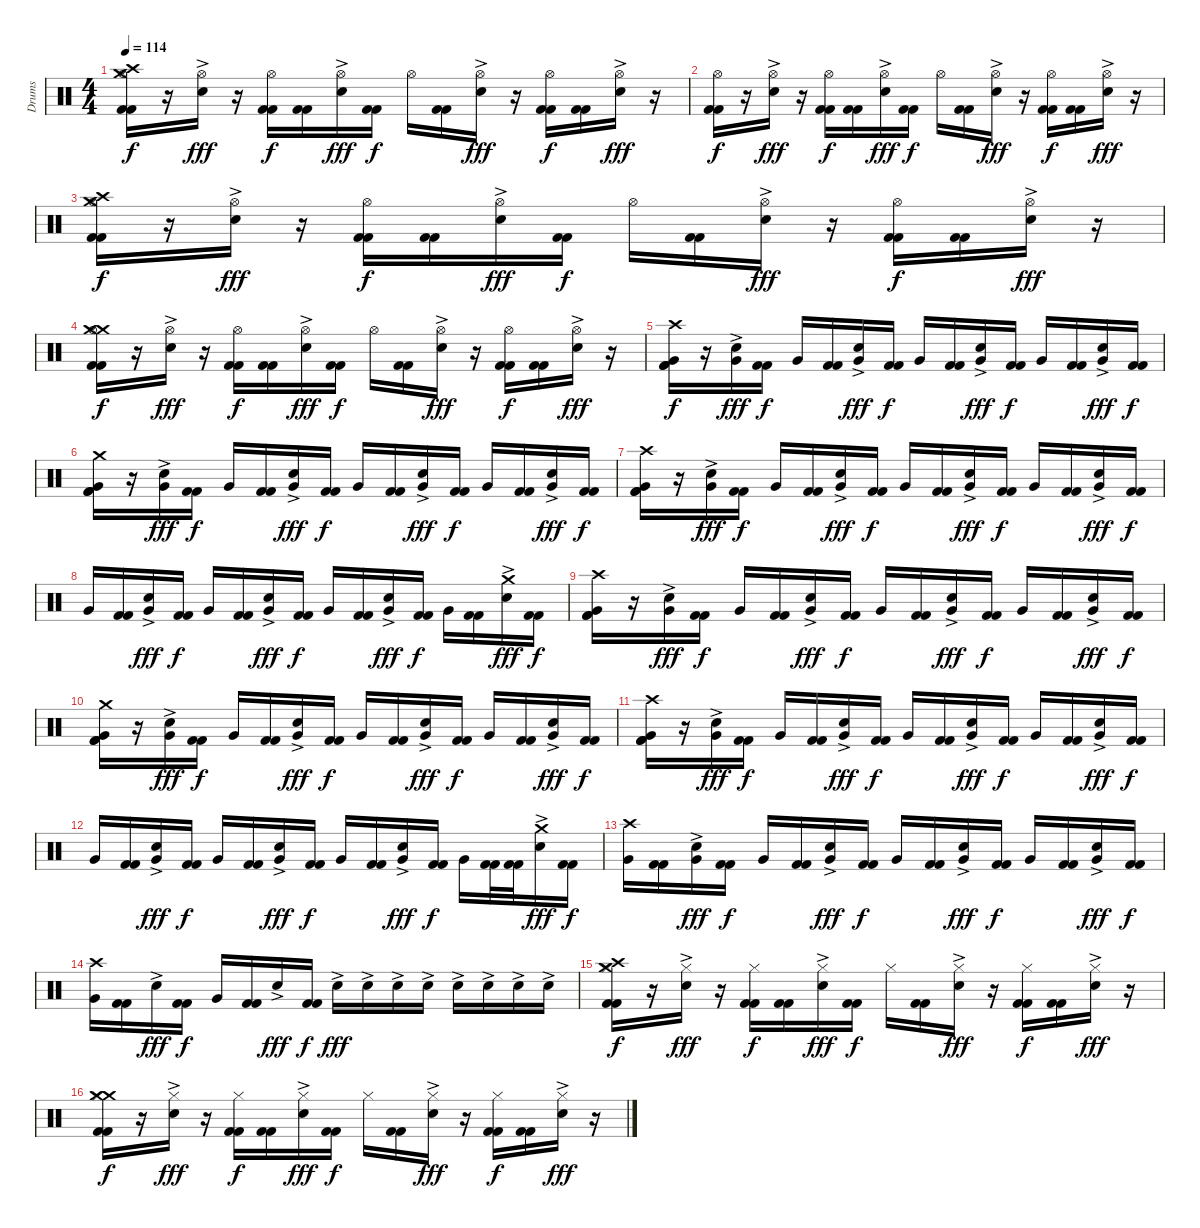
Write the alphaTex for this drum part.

\track ("Drums" "Drums") {instrument percussion}
\staff {score}
\articulation defaults
\ts (4 4)
\tempo 114
\clef neutral
\ks c
("Crash high (hit)" "Crash medium (hit)" "Hi-Hat (open)" "Kick (hit) 2" "Kick (hit) 2").16{dy f} r.16 ("Hi-Hat (open)" "Electric Snare (hit)"{ac}).16{dy fff} r.16 ("Hi-Hat (open)" "Kick (hit) 2" "Kick (hit) 2").16{dy f} ("Kick (hit) 2" "Kick (hit) 2").16 ("Hi-Hat (open)" "Electric Snare (hit)"{ac}).16{dy fff} ("Kick (hit) 2" "Kick (hit) 2").16{dy f} "Hi-Hat (open)".16 ("Kick (hit) 2" "Kick (hit) 2").16 ("Hi-Hat (open)" "Electric Snare (hit)"{ac}).16{dy fff} r.16 ("Hi-Hat (open)" "Kick (hit) 2" "Kick (hit) 2").16{dy f} ("Kick (hit) 2" "Kick (hit) 2").16 ("Hi-Hat (open)" "Electric Snare (hit)"{ac}).16{dy fff} r.16 |
("Hi-Hat (open)" "Kick (hit) 2" "Kick (hit) 2").16{dy f} r.16 ("Hi-Hat (open)" "Electric Snare (hit)"{ac}).16{dy fff} r.16 ("Hi-Hat (open)" "Kick (hit) 2" "Kick (hit) 2").16{dy f} ("Kick (hit) 2" "Kick (hit) 2").16 ("Hi-Hat (open)" "Electric Snare (hit)"{ac}).16{dy fff} ("Kick (hit) 2" "Kick (hit) 2").16{dy f} "Hi-Hat (open)".16 ("Kick (hit) 2" "Kick (hit) 2").16 ("Hi-Hat (open)" "Electric Snare (hit)"{ac}).16{dy fff} r.16 ("Hi-Hat (open)" "Kick (hit) 2" "Kick (hit) 2").16{dy f} ("Kick (hit) 2" "Kick (hit) 2").16 ("Hi-Hat (open)" "Electric Snare (hit)"{ac}).16{dy fff} r.16 |
("Crash high (hit)" "Crash medium (hit)" "Hi-Hat (open)" "Kick (hit) 2" "Kick (hit) 2").16{dy f} r.16 ("Hi-Hat (open)" "Electric Snare (hit)"{ac}).16{dy fff} r.16 ("Hi-Hat (open)" "Kick (hit) 2" "Kick (hit) 2").16{dy f} ("Kick (hit) 2" "Kick (hit) 2").16 ("Hi-Hat (open)" "Electric Snare (hit)"{ac}).16{dy fff} ("Kick (hit) 2" "Kick (hit) 2").16{dy f} "Hi-Hat (open)".16 ("Kick (hit) 2" "Kick (hit) 2").16 ("Hi-Hat (open)" "Electric Snare (hit)"{ac}).16{dy fff} r.16 ("Hi-Hat (open)" "Kick (hit) 2" "Kick (hit) 2").16{dy f} ("Kick (hit) 2" "Kick (hit) 2").16 ("Hi-Hat (open)" "Electric Snare (hit)"{ac}).16{dy fff} r.16 |
("Crash medium (hit)" "Crash medium (hit)" "Hi-Hat (open)" "Kick (hit) 2" "Kick (hit) 2").16{dy f} r.16 ("Hi-Hat (open)" "Electric Snare (hit)"{ac}).16{dy fff} r.16 ("Hi-Hat (open)" "Kick (hit) 2" "Kick (hit) 2").16{dy f} ("Kick (hit) 2" "Kick (hit) 2").16 ("Hi-Hat (open)" "Electric Snare (hit)"{ac}).16{dy fff} ("Kick (hit) 2" "Kick (hit) 2").16{dy f} "Hi-Hat (open)".16 ("Kick (hit) 2" "Kick (hit) 2").16 ("Hi-Hat (open)" "Electric Snare (hit)"{ac}).16{dy fff} r.16 ("Hi-Hat (open)" "Kick (hit) 2" "Kick (hit) 2").16{dy f} ("Kick (hit) 2" "Kick (hit) 2").16 ("Hi-Hat (open)" "Electric Snare (hit)"{ac}).16{dy fff} r.16 |
("Crash high (hit)" "Very Low Tom (hit)" "Kick (hit) 2" "Kick (hit) 2").16{dy f} r.16 ("Very Low Tom (hit)" "Electric Snare (hit)"{ac}).16{dy fff} ("Kick (hit) 2" "Kick (hit) 2").16{dy f} "Very Low Tom (hit)".16 ("Kick (hit) 2" "Kick (hit) 2").16 ("Very Low Tom (hit)" "Electric Snare (hit)"{ac}).16{dy fff} ("Kick (hit) 2" "Kick (hit) 2").16{dy f} "Very Low Tom (hit)".16 ("Kick (hit) 2" "Kick (hit) 2").16 ("Very Low Tom (hit)" "Electric Snare (hit)"{ac}).16{dy fff} ("Kick (hit) 2" "Kick (hit) 2").16{dy f} "Very Low Tom (hit)".16 ("Kick (hit) 2" "Kick (hit) 2").16 ("Very Low Tom (hit)" "Electric Snare (hit)"{ac}).16{dy fff} ("Kick (hit) 2" "Kick (hit) 2").16{dy f} |
("Crash medium (hit)" "Very Low Tom (hit)" "Kick (hit) 2" "Kick (hit) 2").16 r.16 ("Very Low Tom (hit)" "Electric Snare (hit)"{ac}).16{dy fff} ("Kick (hit) 2" "Kick (hit) 2").16{dy f} "Very Low Tom (hit)".16 ("Kick (hit) 2" "Kick (hit) 2").16 ("Very Low Tom (hit)" "Electric Snare (hit)"{ac}).16{dy fff} ("Kick (hit) 2" "Kick (hit) 2").16{dy f} "Very Low Tom (hit)".16 ("Kick (hit) 2" "Kick (hit) 2").16 ("Very Low Tom (hit)" "Electric Snare (hit)"{ac}).16{dy fff} ("Kick (hit) 2" "Kick (hit) 2").16{dy f} "Very Low Tom (hit)".16 ("Kick (hit) 2" "Kick (hit) 2").16 ("Very Low Tom (hit)" "Electric Snare (hit)"{ac}).16{dy fff} ("Kick (hit) 2" "Kick (hit) 2").16{dy f} |
("Crash high (hit)" "Very Low Tom (hit)" "Kick (hit) 2" "Kick (hit) 2").16 r.16 ("Very Low Tom (hit)" "Electric Snare (hit)"{ac}).16{dy fff} ("Kick (hit) 2" "Kick (hit) 2").16{dy f} "Very Low Tom (hit)".16 ("Kick (hit) 2" "Kick (hit) 2").16 ("Very Low Tom (hit)" "Electric Snare (hit)"{ac}).16{dy fff} ("Kick (hit) 2" "Kick (hit) 2").16{dy f} "Very Low Tom (hit)".16 ("Kick (hit) 2" "Kick (hit) 2").16 ("Very Low Tom (hit)" "Electric Snare (hit)"{ac}).16{dy fff} ("Kick (hit) 2" "Kick (hit) 2").16{dy f} "Very Low Tom (hit)".16 ("Kick (hit) 2" "Kick (hit) 2").16 ("Very Low Tom (hit)" "Electric Snare (hit)"{ac}).16{dy fff} ("Kick (hit) 2" "Kick (hit) 2").16{dy f} |
"Very Low Tom (hit)".16 ("Kick (hit) 2" "Kick (hit) 2").16 ("Very Low Tom (hit)" "Electric Snare (hit)"{ac}).16{dy fff} ("Kick (hit) 2" "Kick (hit) 2").16{dy f} "Very Low Tom (hit)".16 ("Kick (hit) 2" "Kick (hit) 2").16 ("Very Low Tom (hit)" "Electric Snare (hit)"{ac}).16{dy fff} ("Kick (hit) 2" "Kick (hit) 2").16{dy f} "Very Low Tom (hit)".16 ("Kick (hit) 2" "Kick (hit) 2").16 ("Very Low Tom (hit)" "Electric Snare (hit)"{ac}).16{dy fff} ("Kick (hit) 2" "Kick (hit) 2").16{dy f} "Very Low Tom (hit)".16 ("Kick (hit) 2" "Kick (hit) 2").16 ("Crash medium (hit)" "Electric Snare (hit)"{ac}).16{dy fff} ("Kick (hit) 2" "Kick (hit) 2").16{dy f} |
("Crash high (hit)" "Very Low Tom (hit)" "Kick (hit) 2" "Kick (hit) 2").16 r.16 ("Very Low Tom (hit)" "Electric Snare (hit)"{ac}).16{dy fff} ("Kick (hit) 2" "Kick (hit) 2").16{dy f} "Very Low Tom (hit)".16 ("Kick (hit) 2" "Kick (hit) 2").16 ("Very Low Tom (hit)" "Electric Snare (hit)"{ac}).16{dy fff} ("Kick (hit) 2" "Kick (hit) 2").16{dy f} "Very Low Tom (hit)".16 ("Kick (hit) 2" "Kick (hit) 2").16 ("Very Low Tom (hit)" "Electric Snare (hit)"{ac}).16{dy fff} ("Kick (hit) 2" "Kick (hit) 2").16{dy f} "Very Low Tom (hit)".16 ("Kick (hit) 2" "Kick (hit) 2").16 ("Very Low Tom (hit)" "Electric Snare (hit)"{ac}).16{dy fff} ("Kick (hit) 2" "Kick (hit) 2").16{dy f} |
("Crash medium (hit)" "Very Low Tom (hit)" "Kick (hit) 2" "Kick (hit) 2").16 r.16 ("Very Low Tom (hit)" "Electric Snare (hit)"{ac}).16{dy fff} ("Kick (hit) 2" "Kick (hit) 2").16{dy f} "Very Low Tom (hit)".16 ("Kick (hit) 2" "Kick (hit) 2").16 ("Very Low Tom (hit)" "Electric Snare (hit)"{ac}).16{dy fff} ("Kick (hit) 2" "Kick (hit) 2").16{dy f} "Very Low Tom (hit)".16 ("Kick (hit) 2" "Kick (hit) 2").16 ("Very Low Tom (hit)" "Electric Snare (hit)"{ac}).16{dy fff} ("Kick (hit) 2" "Kick (hit) 2").16{dy f} "Very Low Tom (hit)".16 ("Kick (hit) 2" "Kick (hit) 2").16 ("Very Low Tom (hit)" "Electric Snare (hit)"{ac}).16{dy fff} ("Kick (hit) 2" "Kick (hit) 2").16{dy f} |
("Crash high (hit)" "Very Low Tom (hit)" "Kick (hit) 2" "Kick (hit) 2").16 r.16 ("Very Low Tom (hit)" "Electric Snare (hit)"{ac}).16{dy fff} ("Kick (hit) 2" "Kick (hit) 2").16{dy f} "Very Low Tom (hit)".16 ("Kick (hit) 2" "Kick (hit) 2").16 ("Very Low Tom (hit)" "Electric Snare (hit)"{ac}).16{dy fff} ("Kick (hit) 2" "Kick (hit) 2").16{dy f} "Very Low Tom (hit)".16 ("Kick (hit) 2" "Kick (hit) 2").16 ("Very Low Tom (hit)" "Electric Snare (hit)"{ac}).16{dy fff} ("Kick (hit) 2" "Kick (hit) 2").16{dy f} "Very Low Tom (hit)".16 ("Kick (hit) 2" "Kick (hit) 2").16 ("Very Low Tom (hit)" "Electric Snare (hit)"{ac}).16{dy fff} ("Kick (hit) 2" "Kick (hit) 2").16{dy f} |
"Very Low Tom (hit)".16 ("Kick (hit) 2" "Kick (hit) 2").16 ("Very Low Tom (hit)" "Electric Snare (hit)"{ac}).16{dy fff} ("Kick (hit) 2" "Kick (hit) 2").16{dy f} "Very Low Tom (hit)".16 ("Kick (hit) 2" "Kick (hit) 2").16 ("Very Low Tom (hit)" "Electric Snare (hit)"{ac}).16{dy fff} ("Kick (hit) 2" "Kick (hit) 2").16{dy f} "Very Low Tom (hit)".16 ("Kick (hit) 2" "Kick (hit) 2").16 ("Very Low Tom (hit)" "Electric Snare (hit)"{ac}).16{dy fff} ("Kick (hit) 2" "Kick (hit) 2").16{dy f} "Very Low Tom (hit)".16 ("Kick (hit) 2" "Kick (hit) 2").32 ("Kick (hit) 2" "Kick (hit) 2").32 ("Crash medium (hit)" "Electric Snare (hit)"{ac}).16{dy fff} ("Kick (hit) 2" "Kick (hit) 2").16{dy f} |
("Crash high (hit)" "Very Low Tom (hit)").16 ("Kick (hit) 2" "Kick (hit) 2").16 ("Very Low Tom (hit)" "Electric Snare (hit)"{ac}).16{dy fff} ("Kick (hit) 2" "Kick (hit) 2").16{dy f} "Very Low Tom (hit)".16 ("Kick (hit) 2" "Kick (hit) 2").16 ("Very Low Tom (hit)" "Electric Snare (hit)"{ac}).16{dy fff} ("Kick (hit) 2" "Kick (hit) 2").16{dy f} "Very Low Tom (hit)".16 ("Kick (hit) 2" "Kick (hit) 2").16 ("Very Low Tom (hit)" "Electric Snare (hit)"{ac}).16{dy fff} ("Kick (hit) 2" "Kick (hit) 2").16{dy f} "Very Low Tom (hit)".16 ("Kick (hit) 2" "Kick (hit) 2").16 ("Very Low Tom (hit)" "Electric Snare (hit)"{ac}).16{dy fff} ("Kick (hit) 2" "Kick (hit) 2").16{dy f} |
("Crash high (hit)" "Very Low Tom (hit)").16 ("Kick (hit) 2" "Kick (hit) 2").16 "Electric Snare (hit)"{ac}.16{dy fff} ("Kick (hit) 2" "Kick (hit) 2").16{dy f} "Very Low Tom (hit)".16 ("Kick (hit) 2" "Kick (hit) 2").16 "Electric Snare (hit)"{ac}.16{dy fff} ("Kick (hit) 2" "Kick (hit) 2").16{dy f} "Electric Snare (hit)"{ac}.16{dy fff} "Electric Snare (hit)"{ac}.16 "Electric Snare (hit)"{ac}.16 "Electric Snare (hit)"{ac}.16 "Electric Snare (hit)"{ac}.16 "Electric Snare (hit)"{ac}.16 "Electric Snare (hit)"{ac}.16 "Electric Snare (hit)"{ac}.16 |
("Crash high (hit)" "Crash medium (hit)" "Hi-Hat (closed)" "Kick (hit) 2" "Kick (hit) 2").16{dy f} r.16 ("Hi-Hat (closed)" "Electric Snare (hit)"{ac}).16{dy fff} r.16 ("Hi-Hat (closed)" "Kick (hit) 2" "Kick (hit) 2").16{dy f} ("Kick (hit) 2" "Kick (hit) 2").16 ("Hi-Hat (closed)" "Electric Snare (hit)"{ac}).16{dy fff} ("Kick (hit) 2" "Kick (hit) 2").16{dy f} "Hi-Hat (closed)".16 ("Kick (hit) 2" "Kick (hit) 2").16 ("Hi-Hat (closed)" "Electric Snare (hit)"{ac}).16{dy fff} r.16 ("Hi-Hat (closed)" "Kick (hit) 2" "Kick (hit) 2").16{dy f} ("Kick (hit) 2" "Kick (hit) 2").16 ("Hi-Hat (closed)" "Electric Snare (hit)"{ac}).16{dy fff} r.16 |
("Crash medium (hit)" "Crash medium (hit)" "Hi-Hat (closed)" "Kick (hit) 2" "Kick (hit) 2").16{dy f} r.16 ("Hi-Hat (closed)" "Electric Snare (hit)"{ac}).16{dy fff} r.16 ("Hi-Hat (closed)" "Kick (hit) 2" "Kick (hit) 2").16{dy f} ("Kick (hit) 2" "Kick (hit) 2").16 ("Hi-Hat (closed)" "Electric Snare (hit)"{ac}).16{dy fff} ("Kick (hit) 2" "Kick (hit) 2").16{dy f} "Hi-Hat (closed)".16 ("Kick (hit) 2" "Kick (hit) 2").16 ("Hi-Hat (closed)" "Electric Snare (hit)"{ac}).16{dy fff} r.16 ("Hi-Hat (closed)" "Kick (hit) 2" "Kick (hit) 2").16{dy f} ("Kick (hit) 2" "Kick (hit) 2").16 ("Hi-Hat (closed)" "Electric Snare (hit)"{ac}).16{dy fff} r.16
